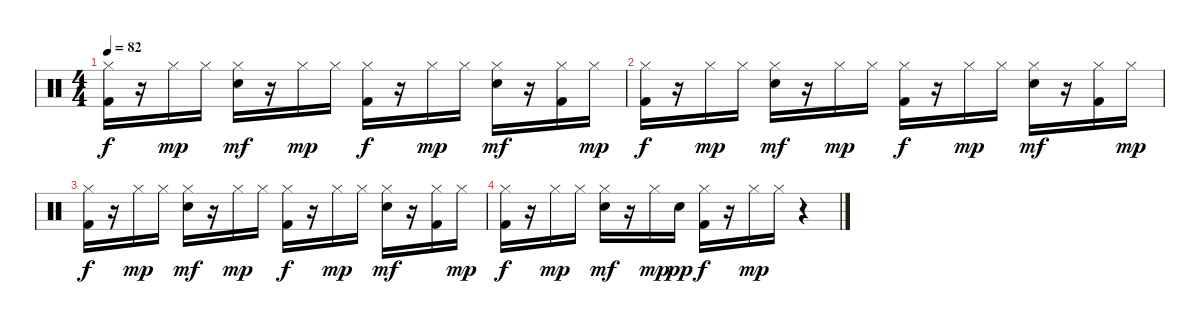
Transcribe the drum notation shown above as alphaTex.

\track "" {instrument percussion}
\staff {score}
\articulation defaults
\ts (4 4)
\tempo 82
\clef neutral
\ks c
("Hi-Hat (closed)" "Kick (hit) 2").16{dy f} r.16 "Hi-Hat (closed)".16{dy mp} "Hi-Hat (closed)".16 ("Hi-Hat (closed)" "Snare (hit) 2").16{dy mf} r.16 "Hi-Hat (closed)".16{dy mp} "Hi-Hat (closed)".16 ("Hi-Hat (closed)" "Kick (hit) 2").16{dy f} r.16 "Hi-Hat (closed)".16{dy mp} "Hi-Hat (closed)".16 ("Hi-Hat (closed)" "Snare (hit) 2").16{dy mf} r.16 ("Hi-Hat (closed)" "Kick (hit) 2").16 "Hi-Hat (closed)".16{dy mp} |
("Hi-Hat (closed)" "Kick (hit) 2").16{dy f} r.16 "Hi-Hat (closed)".16{dy mp} "Hi-Hat (closed)".16 ("Hi-Hat (closed)" "Snare (hit) 2").16{dy mf} r.16 "Hi-Hat (closed)".16{dy mp} "Hi-Hat (closed)".16 ("Hi-Hat (closed)" "Kick (hit) 2").16{dy f} r.16 "Hi-Hat (closed)".16{dy mp} "Hi-Hat (closed)".16 ("Hi-Hat (closed)" "Snare (hit) 2").16{dy mf} r.16 ("Hi-Hat (closed)" "Kick (hit) 2").16 "Hi-Hat (closed)".16{dy mp} |
("Hi-Hat (closed)" "Kick (hit) 2").16{dy f} r.16 "Hi-Hat (closed)".16{dy mp} "Hi-Hat (closed)".16 ("Hi-Hat (closed)" "Snare (hit) 2").16{dy mf} r.16 "Hi-Hat (closed)".16{dy mp} "Hi-Hat (closed)".16 ("Hi-Hat (closed)" "Kick (hit) 2").16{dy f} r.16 "Hi-Hat (closed)".16{dy mp} "Hi-Hat (closed)".16 ("Hi-Hat (closed)" "Snare (hit) 2").16{dy mf} r.16 ("Hi-Hat (closed)" "Kick (hit) 2").16 "Hi-Hat (closed)".16{dy mp} |
("Hi-Hat (closed)" "Kick (hit) 2").16{dy f} r.16 "Hi-Hat (closed)".16{dy mp} "Hi-Hat (closed)".16 ("Hi-Hat (closed)" "Snare (hit) 2").16{dy mf} r.16 "Hi-Hat (closed)".16{dy mp} "Snare (hit) 2".16{dy pp} ("Hi-Hat (closed)" "Kick (hit) 2").16{dy f} r.16 "Hi-Hat (closed)".16{dy mp} "Hi-Hat (closed)".16 r.4
